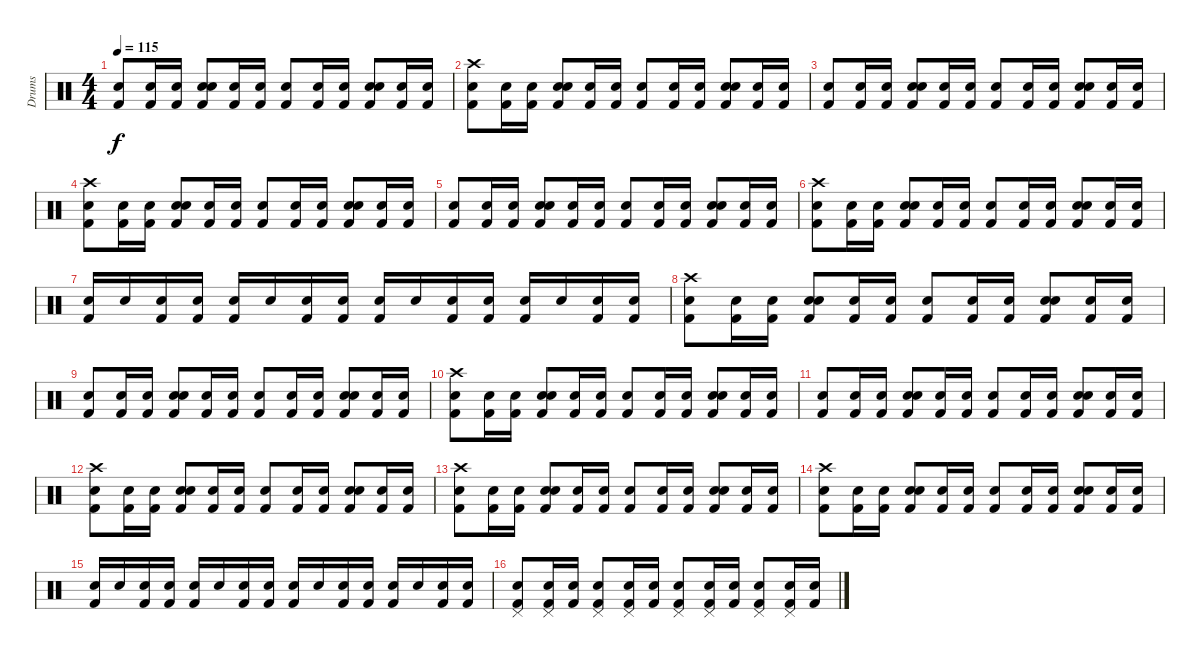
\track ("Drums" "Drums") {instrument percussion}
\staff {score}
\articulation defaults
\ts (4 4)
\tempo 115
\clef neutral
\ks c
("Kick (hit) 2" "Snare (hit) 2").8{dy f} ("Kick (hit) 2" "Snare (hit) 2").16 ("Kick (hit) 2" "Snare (hit) 2").16 ("Electric Snare (hit)" "Kick (hit) 2" "Snare (hit) 2").8 ("Kick (hit) 2" "Snare (hit) 2").16 ("Kick (hit) 2" "Snare (hit) 2").16 ("Kick (hit) 2" "Snare (hit) 2").8 ("Kick (hit) 2" "Snare (hit) 2").16 ("Kick (hit) 2" "Snare (hit) 2").16 ("Electric Snare (hit)" "Kick (hit) 2" "Snare (hit) 2").8 ("Kick (hit) 2" "Snare (hit) 2").16 ("Kick (hit) 2" "Snare (hit) 2").16 |
("Crash high (hit)" "Kick (hit) 2" "Snare (hit) 2").8 ("Kick (hit) 2" "Snare (hit) 2").16 ("Kick (hit) 2" "Snare (hit) 2").16 ("Electric Snare (hit)" "Kick (hit) 2" "Snare (hit) 2").8 ("Kick (hit) 2" "Snare (hit) 2").16 ("Kick (hit) 2" "Snare (hit) 2").16 ("Kick (hit) 2" "Snare (hit) 2").8 ("Kick (hit) 2" "Snare (hit) 2").16 ("Kick (hit) 2" "Snare (hit) 2").16 ("Electric Snare (hit)" "Kick (hit) 2" "Snare (hit) 2").8 ("Kick (hit) 2" "Snare (hit) 2").16 ("Kick (hit) 2" "Snare (hit) 2").16 |
("Kick (hit) 2" "Snare (hit) 2").8 ("Kick (hit) 2" "Snare (hit) 2").16 ("Kick (hit) 2" "Snare (hit) 2").16 ("Electric Snare (hit)" "Kick (hit) 2" "Snare (hit) 2").8 ("Kick (hit) 2" "Snare (hit) 2").16 ("Kick (hit) 2" "Snare (hit) 2").16 ("Kick (hit) 2" "Snare (hit) 2").8 ("Kick (hit) 2" "Snare (hit) 2").16 ("Kick (hit) 2" "Snare (hit) 2").16 ("Electric Snare (hit)" "Kick (hit) 2" "Snare (hit) 2").8 ("Kick (hit) 2" "Snare (hit) 2").16 ("Kick (hit) 2" "Snare (hit) 2").16 |
("Crash high (hit)" "Kick (hit) 2" "Snare (hit) 2").8 ("Kick (hit) 2" "Snare (hit) 2").16 ("Kick (hit) 2" "Snare (hit) 2").16 ("Electric Snare (hit)" "Kick (hit) 2" "Snare (hit) 2").8 ("Kick (hit) 2" "Snare (hit) 2").16 ("Kick (hit) 2" "Snare (hit) 2").16 ("Kick (hit) 2" "Snare (hit) 2").8 ("Kick (hit) 2" "Snare (hit) 2").16 ("Kick (hit) 2" "Snare (hit) 2").16 ("Electric Snare (hit)" "Kick (hit) 2" "Snare (hit) 2").8 ("Kick (hit) 2" "Snare (hit) 2").16 ("Kick (hit) 2" "Snare (hit) 2").16 |
("Kick (hit) 2" "Snare (hit) 2").8 ("Kick (hit) 2" "Snare (hit) 2").16 ("Kick (hit) 2" "Snare (hit) 2").16 ("Electric Snare (hit)" "Kick (hit) 2" "Snare (hit) 2").8 ("Kick (hit) 2" "Snare (hit) 2").16 ("Kick (hit) 2" "Snare (hit) 2").16 ("Kick (hit) 2" "Snare (hit) 2").8 ("Kick (hit) 2" "Snare (hit) 2").16 ("Kick (hit) 2" "Snare (hit) 2").16 ("Electric Snare (hit)" "Kick (hit) 2" "Snare (hit) 2").8 ("Kick (hit) 2" "Snare (hit) 2").16 ("Kick (hit) 2" "Snare (hit) 2").16 |
("Crash high (hit)" "Kick (hit) 2" "Snare (hit) 2").8 ("Kick (hit) 2" "Snare (hit) 2").16 ("Kick (hit) 2" "Snare (hit) 2").16 ("Electric Snare (hit)" "Kick (hit) 2" "Snare (hit) 2").8 ("Kick (hit) 2" "Snare (hit) 2").16 ("Kick (hit) 2" "Snare (hit) 2").16 ("Kick (hit) 2" "Snare (hit) 2").8 ("Kick (hit) 2" "Snare (hit) 2").16 ("Kick (hit) 2" "Snare (hit) 2").16 ("Electric Snare (hit)" "Kick (hit) 2" "Snare (hit) 2").8 ("Kick (hit) 2" "Snare (hit) 2").16 ("Kick (hit) 2" "Snare (hit) 2").16 |
("Kick (hit) 2" "Snare (hit) 2").16 "Snare (hit) 2".16 ("Kick (hit) 2" "Snare (hit) 2").16 ("Kick (hit) 2" "Snare (hit) 2").16 ("Kick (hit) 2" "Snare (hit) 2").16 "Snare (hit) 2".16 ("Kick (hit) 2" "Snare (hit) 2").16 ("Kick (hit) 2" "Snare (hit) 2").16 ("Kick (hit) 2" "Electric Snare (hit)").16 "Electric Snare (hit)".16 ("Kick (hit) 2" "Electric Snare (hit)").16 ("Kick (hit) 2" "Electric Snare (hit)").16 ("Kick (hit) 2" "Electric Snare (hit)").16 "Electric Snare (hit)".16 ("Kick (hit) 2" "Electric Snare (hit)").16 ("Kick (hit) 2" "Electric Snare (hit)").16 |
("Crash high (hit)" "Kick (hit) 2" "Snare (hit) 2").8 ("Kick (hit) 2" "Snare (hit) 2").16 ("Kick (hit) 2" "Snare (hit) 2").16 ("Electric Snare (hit)" "Kick (hit) 2" "Snare (hit) 2").8 ("Kick (hit) 2" "Snare (hit) 2").16 ("Kick (hit) 2" "Snare (hit) 2").16 ("Kick (hit) 2" "Snare (hit) 2").8 ("Kick (hit) 2" "Snare (hit) 2").16 ("Kick (hit) 2" "Snare (hit) 2").16 ("Electric Snare (hit)" "Kick (hit) 2" "Snare (hit) 2").8 ("Kick (hit) 2" "Snare (hit) 2").16 ("Kick (hit) 2" "Snare (hit) 2").16 |
("Kick (hit) 2" "Snare (hit) 2").8 ("Kick (hit) 2" "Snare (hit) 2").16 ("Kick (hit) 2" "Snare (hit) 2").16 ("Electric Snare (hit)" "Kick (hit) 2" "Snare (hit) 2").8 ("Kick (hit) 2" "Snare (hit) 2").16 ("Kick (hit) 2" "Snare (hit) 2").16 ("Kick (hit) 2" "Snare (hit) 2").8 ("Kick (hit) 2" "Snare (hit) 2").16 ("Kick (hit) 2" "Snare (hit) 2").16 ("Electric Snare (hit)" "Kick (hit) 2" "Snare (hit) 2").8 ("Kick (hit) 2" "Snare (hit) 2").16 ("Kick (hit) 2" "Snare (hit) 2").16 |
("Crash high (hit)" "Kick (hit) 2" "Snare (hit) 2").8 ("Kick (hit) 2" "Snare (hit) 2").16 ("Kick (hit) 2" "Snare (hit) 2").16 ("Electric Snare (hit)" "Kick (hit) 2" "Snare (hit) 2").8 ("Kick (hit) 2" "Snare (hit) 2").16 ("Kick (hit) 2" "Snare (hit) 2").16 ("Kick (hit) 2" "Snare (hit) 2").8 ("Kick (hit) 2" "Snare (hit) 2").16 ("Kick (hit) 2" "Snare (hit) 2").16 ("Electric Snare (hit)" "Kick (hit) 2" "Snare (hit) 2").8 ("Kick (hit) 2" "Snare (hit) 2").16 ("Kick (hit) 2" "Snare (hit) 2").16 |
("Kick (hit) 2" "Snare (hit) 2").8 ("Kick (hit) 2" "Snare (hit) 2").16 ("Kick (hit) 2" "Snare (hit) 2").16 ("Electric Snare (hit)" "Kick (hit) 2" "Snare (hit) 2").8 ("Kick (hit) 2" "Snare (hit) 2").16 ("Kick (hit) 2" "Snare (hit) 2").16 ("Kick (hit) 2" "Snare (hit) 2").8 ("Kick (hit) 2" "Snare (hit) 2").16 ("Kick (hit) 2" "Snare (hit) 2").16 ("Electric Snare (hit)" "Kick (hit) 2" "Snare (hit) 2").8 ("Kick (hit) 2" "Snare (hit) 2").16 ("Kick (hit) 2" "Snare (hit) 2").16 |
("Crash high (hit)" "Kick (hit) 2" "Snare (hit) 2").8 ("Kick (hit) 2" "Snare (hit) 2").16 ("Kick (hit) 2" "Snare (hit) 2").16 ("Electric Snare (hit)" "Kick (hit) 2" "Snare (hit) 2").8 ("Kick (hit) 2" "Snare (hit) 2").16 ("Kick (hit) 2" "Snare (hit) 2").16 ("Kick (hit) 2" "Snare (hit) 2").8 ("Kick (hit) 2" "Snare (hit) 2").16 ("Kick (hit) 2" "Snare (hit) 2").16 ("Electric Snare (hit)" "Kick (hit) 2" "Snare (hit) 2").8 ("Kick (hit) 2" "Snare (hit) 2").16 ("Kick (hit) 2" "Snare (hit) 2").16 |
("Crash high (hit)" "Kick (hit) 2" "Snare (hit) 2").8 ("Kick (hit) 2" "Snare (hit) 2").16 ("Kick (hit) 2" "Snare (hit) 2").16 ("Electric Snare (hit)" "Kick (hit) 2" "Snare (hit) 2").8 ("Kick (hit) 2" "Snare (hit) 2").16 ("Kick (hit) 2" "Snare (hit) 2").16 ("Kick (hit) 2" "Snare (hit) 2").8 ("Kick (hit) 2" "Snare (hit) 2").16 ("Kick (hit) 2" "Snare (hit) 2").16 ("Electric Snare (hit)" "Kick (hit) 2" "Snare (hit) 2").8 ("Kick (hit) 2" "Snare (hit) 2").16 ("Kick (hit) 2" "Snare (hit) 2").16 |
("Crash high (hit)" "Kick (hit) 2" "Snare (hit) 2").8 ("Kick (hit) 2" "Snare (hit) 2").16 ("Kick (hit) 2" "Snare (hit) 2").16 ("Electric Snare (hit)" "Kick (hit) 2" "Snare (hit) 2").8 ("Kick (hit) 2" "Snare (hit) 2").16 ("Kick (hit) 2" "Snare (hit) 2").16 ("Kick (hit) 2" "Snare (hit) 2").8 ("Kick (hit) 2" "Snare (hit) 2").16 ("Kick (hit) 2" "Snare (hit) 2").16 ("Electric Snare (hit)" "Kick (hit) 2" "Snare (hit) 2").8 ("Kick (hit) 2" "Snare (hit) 2").16 ("Kick (hit) 2" "Snare (hit) 2").16 |
("Kick (hit) 2" "Snare (hit) 2").16 "Snare (hit) 2".16 ("Kick (hit) 2" "Snare (hit) 2").16 ("Kick (hit) 2" "Snare (hit) 2").16 ("Kick (hit) 2" "Snare (hit) 2").16 "Snare (hit) 2".16 ("Kick (hit) 2" "Snare (hit) 2").16 ("Kick (hit) 2" "Snare (hit) 2").16 ("Kick (hit) 2" "Electric Snare (hit)").16 "Electric Snare (hit)".16 ("Kick (hit) 2" "Electric Snare (hit)").16 ("Kick (hit) 2" "Electric Snare (hit)").16 ("Kick (hit) 2" "Electric Snare (hit)").16 "Electric Snare (hit)".16 ("Kick (hit) 2" "Electric Snare (hit)").16 ("Kick (hit) 2" "Electric Snare (hit)").16 |
("Pedal Hi-Hat (hit)" "Kick (hit) 2" "Snare (hit) 2").8 ("Pedal Hi-Hat (hit)" "Kick (hit) 2" "Snare (hit) 2").16 ("Kick (hit) 2" "Snare (hit) 2").16 ("Pedal Hi-Hat (hit)" "Electric Snare (hit)" "Kick (hit) 2").8 ("Pedal Hi-Hat (hit)" "Kick (hit) 2" "Snare (hit) 2").16 ("Kick (hit) 2" "Snare (hit) 2").16 ("Pedal Hi-Hat (hit)" "Kick (hit) 2" "Snare (hit) 2").8 ("Pedal Hi-Hat (hit)" "Kick (hit) 2" "Snare (hit) 2").16 ("Kick (hit) 2" "Snare (hit) 2").16 ("Pedal Hi-Hat (hit)" "Electric Snare (hit)" "Kick (hit) 2").8 ("Pedal Hi-Hat (hit)" "Kick (hit) 2" "Snare (hit) 2").16 ("Kick (hit) 2" "Snare (hit) 2").16
